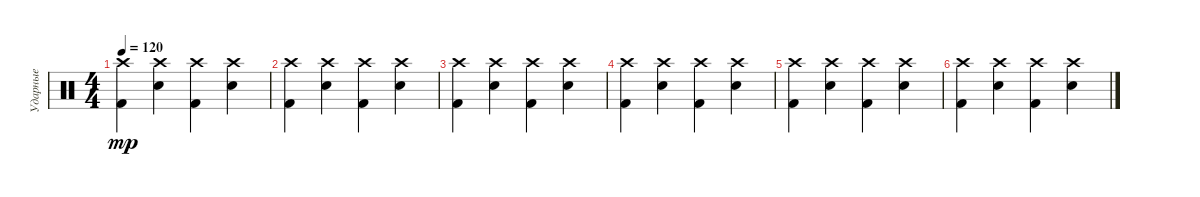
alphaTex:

\track ("Ударные" "Ударные") {instrument percussion}
\staff {score}
\articulation defaults
\ts (4 4)
\tempo 120
\clef neutral
\ks c
("Crash high (hit)" "Kick (hit) 2").4{dy mp} ("Crash high (hit)" "Snare (hit) 2").4 ("Crash high (hit)" "Kick (hit) 2").4 ("Crash high (hit)" "Snare (hit) 2").4 |
("Crash high (hit)" "Kick (hit) 2").4 ("Crash high (hit)" "Snare (hit) 2").4 ("Crash high (hit)" "Kick (hit) 2").4 ("Crash high (hit)" "Snare (hit) 2").4 |
("Crash high (hit)" "Kick (hit) 2").4 ("Crash high (hit)" "Snare (hit) 2").4 ("Crash high (hit)" "Kick (hit) 2").4 ("Crash high (hit)" "Snare (hit) 2").4 |
("Crash high (hit)" "Kick (hit) 2").4 ("Crash high (hit)" "Snare (hit) 2").4 ("Crash high (hit)" "Kick (hit) 2").4 ("Crash high (hit)" "Snare (hit) 2").4 |
("Crash high (hit)" "Kick (hit) 2").4 ("Crash high (hit)" "Snare (hit) 2").4 ("Crash high (hit)" "Kick (hit) 2").4 ("Crash high (hit)" "Snare (hit) 2").4 |
("Crash high (hit)" "Kick (hit) 2").4 ("Crash high (hit)" "Snare (hit) 2").4 ("Crash high (hit)" "Kick (hit) 2").4 ("Crash high (hit)" "Snare (hit) 2").4
